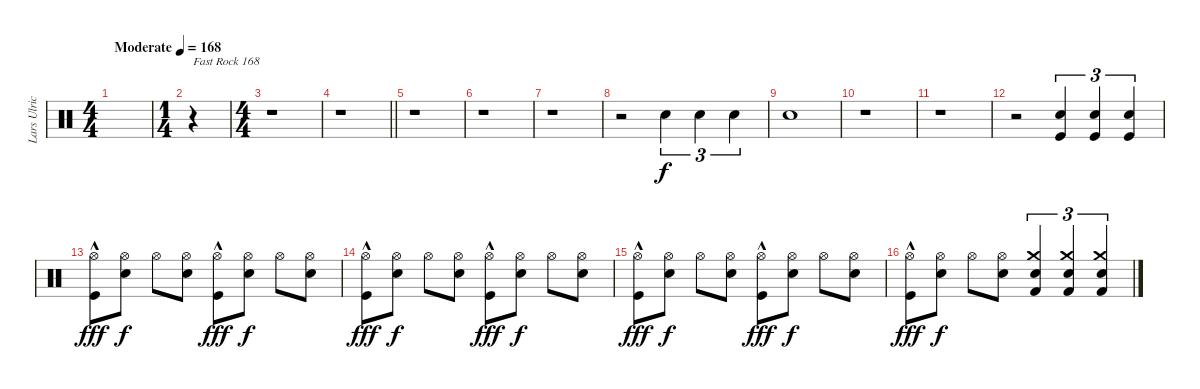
\track ("Lars Ulrich" "Lars Ulric") {instrument percussion}
\staff {score}
\articulation defaults
\ts (4 4)
\tempo (168 "Moderate")
\clef neutral
\ks c
|
\ts (1 4)
r.4{txt "Fast Rock 168"} |
\ts (4 4)
r.1 |
\barLineRight lightlight
r.1 |
r.1 |
r.1 |
r.1 |
r.2 "Snare (hit) 2".4{tu (3 2)} "Snare (hit) 2".4{tu (3 2)} "Snare (hit) 2".4{tu (3 2)} |
"Snare (hit) 2".1 |
r.1 |
r.1 |
r.2 ("Kick (hit)" "Snare (hit) 2").4{tu (3 2)} ("Kick (hit)" "Snare (hit) 2").4{tu (3 2)} ("Kick (hit)" "Snare (hit) 2").4{tu (3 2)} |
("Hi-Hat (open)" "Kick (hit)"{hac}).8{dy fff} ("Hi-Hat (open)" "Snare (hit) 2").8{dy f} "Hi-Hat (open)".8 ("Hi-Hat (open)" "Snare (hit) 2").8 ("Hi-Hat (open)" "Kick (hit)"{hac}).8{dy fff} ("Hi-Hat (open)" "Snare (hit) 2").8{dy f} "Hi-Hat (open)".8 ("Hi-Hat (open)" "Snare (hit) 2").8 |
("Hi-Hat (open)" "Kick (hit)"{hac}).8{dy fff} ("Hi-Hat (open)" "Snare (hit) 2").8{dy f} "Hi-Hat (open)".8 ("Hi-Hat (open)" "Snare (hit) 2").8 ("Hi-Hat (open)" "Kick (hit)"{hac}).8{dy fff} ("Hi-Hat (open)" "Snare (hit) 2").8{dy f} "Hi-Hat (open)".8 ("Hi-Hat (open)" "Snare (hit) 2").8 |
("Hi-Hat (open)" "Kick (hit)"{hac}).8{dy fff} ("Hi-Hat (open)" "Snare (hit) 2").8{dy f} "Hi-Hat (open)".8 ("Hi-Hat (open)" "Snare (hit) 2").8 ("Hi-Hat (open)" "Kick (hit)"{hac}).8{dy fff} ("Hi-Hat (open)" "Snare (hit) 2").8{dy f} "Hi-Hat (open)".8 ("Hi-Hat (open)" "Snare (hit) 2").8 |
("Hi-Hat (open)" "Kick (hit)"{hac}).8{dy fff} ("Hi-Hat (open)" "Snare (hit) 2").8{dy f} "Hi-Hat (open)".8 ("Hi-Hat (open)" "Snare (hit) 2").8 ("Crash medium (hit)" "Snare (hit) 2" "Kick (hit) 2").4{tu (3 2)} ("Crash medium (hit)" "Snare (hit) 2" "Kick (hit) 2").4{tu (3 2)} ("Crash medium (hit)" "Snare (hit) 2" "Kick (hit) 2").4{tu (3 2)}
